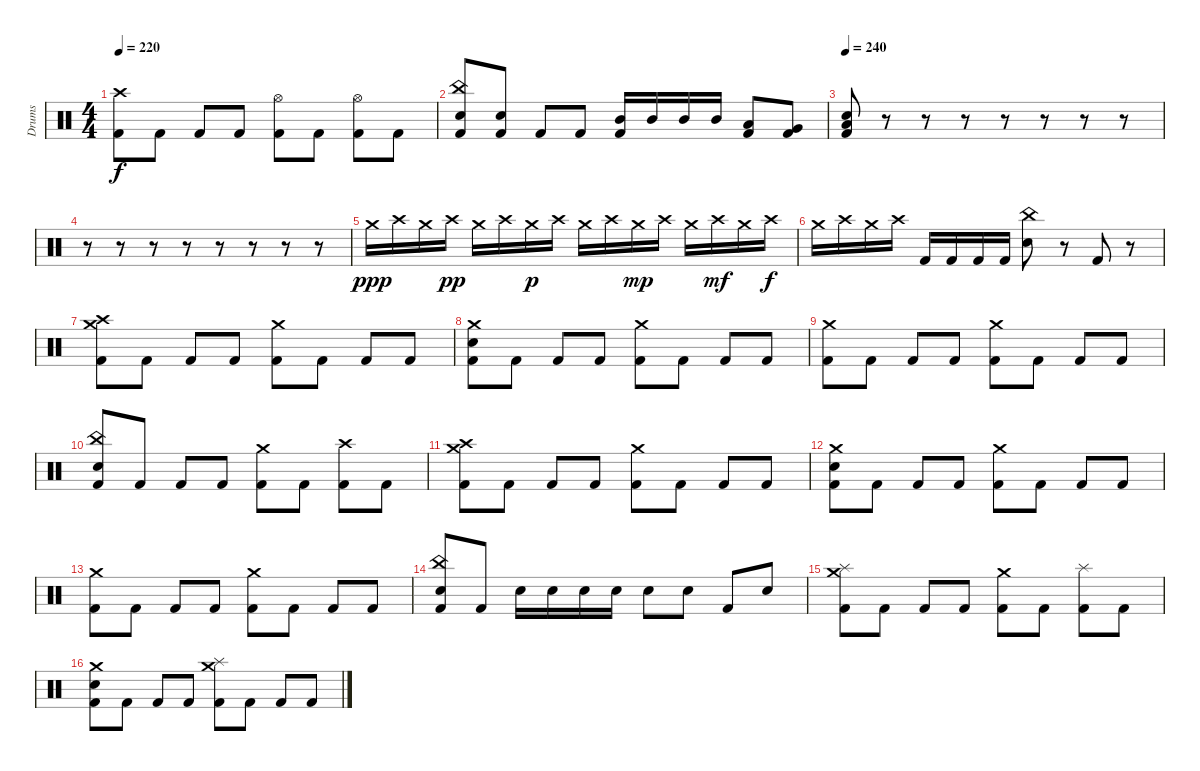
\track ("Drums" "Drums") {instrument percussion}
\staff {score}
\articulation defaults
\ts (4 4)
\tempo 220
\clef neutral
\ks c
("Crash high (hit)" "Kick (hit) 2").8{dy f} "Kick (hit) 2".8 "Kick (hit) 2".8 "Kick (hit) 2".8 ("Hi-Hat (open)" "Kick (hit) 2").8 "Kick (hit) 2".8 ("Hi-Hat (open)" "Kick (hit) 2").8 "Kick (hit) 2".8 |
("China (hit)" "Electric Snare (hit)" "Kick (hit) 2").8 ("Electric Snare (hit)" "Kick (hit) 2").8 "Kick (hit) 2".8 "Kick (hit) 2".8 ("Mid Tom (hit)" "Kick (hit) 2").16 "Mid Tom (hit)".16 "Mid Tom (hit)".16 "Mid Tom (hit)".16 ("Low Tom (hit)" "Kick (hit) 2").8 ("Very Low Tom (hit)" "Kick (hit) 2").8 |
\tempo 240
("Low Floor Tom (hit)" "Electric Snare (hit)" "Kick (hit) 2").8 r.8 r.8 r.8 r.8 r.8 r.8 r.8 |
r.8 r.8 r.8 r.8 r.8 r.8 r.8 r.8 |
"Crash medium (hit)".16{dy ppp} "Crash high (hit)".16 "Crash medium (hit)".16 "Crash high (hit)".16{dy pp} "Crash medium (hit)".16 "Crash high (hit)".16 "Crash medium (hit)".16{dy p} "Crash high (hit)".16 "Crash medium (hit)".16 "Crash high (hit)".16 "Crash medium (hit)".16{dy mp} "Crash high (hit)".16 "Crash medium (hit)".16 "Crash high (hit)".16{dy mf} "Crash medium (hit)".16 "Crash high (hit)".16{dy f} |
"Crash medium (hit)".16 "Crash high (hit)".16 "Crash medium (hit)".16 "Crash high (hit)".16 "Kick (hit) 2".16 "Kick (hit) 2".16 "Kick (hit) 2".16 "Kick (hit) 2".16 ("China (hit)" "Electric Snare (hit)").8 r.8 "Kick (hit) 2".8 r.8 |
("Crash medium (hit)" "Crash high (hit)" "Kick (hit) 2").8 "Kick (hit) 2".8 "Kick (hit) 2".8 "Kick (hit) 2".8 ("Crash medium (hit)" "Kick (hit) 2").8 "Kick (hit) 2".8 "Kick (hit) 2".8 "Kick (hit) 2".8 |
("Crash medium (hit)" "Electric Snare (hit)" "Kick (hit) 2").8 "Kick (hit) 2".8 "Kick (hit) 2".8 "Kick (hit) 2".8 ("Crash medium (hit)" "Kick (hit) 2").8 "Kick (hit) 2".8 "Kick (hit) 2".8 "Kick (hit) 2".8 |
("Crash medium (hit)" "Kick (hit) 2").8 "Kick (hit) 2".8 "Kick (hit) 2".8 "Kick (hit) 2".8 ("Crash medium (hit)" "Kick (hit) 2").8 "Kick (hit) 2".8 "Kick (hit) 2".8 "Kick (hit) 2".8 |
("China (hit)" "Electric Snare (hit)" "Kick (hit) 2").8 "Kick (hit) 2".8 "Kick (hit) 2".8 "Kick (hit) 2".8 ("Crash medium (hit)" "Kick (hit) 2").8 "Kick (hit) 2".8 ("Crash high (hit)" "Kick (hit) 2").8 "Kick (hit) 2".8 |
("Crash medium (hit)" "Crash high (hit)" "Kick (hit) 2").8 "Kick (hit) 2".8 "Kick (hit) 2".8 "Kick (hit) 2".8 ("Crash medium (hit)" "Kick (hit) 2").8 "Kick (hit) 2".8 "Kick (hit) 2".8 "Kick (hit) 2".8 |
("Crash medium (hit)" "Electric Snare (hit)" "Kick (hit) 2").8 "Kick (hit) 2".8 "Kick (hit) 2".8 "Kick (hit) 2".8 ("Crash medium (hit)" "Kick (hit) 2").8 "Kick (hit) 2".8 "Kick (hit) 2".8 "Kick (hit) 2".8 |
("Crash medium (hit)" "Kick (hit) 2").8 "Kick (hit) 2".8 "Kick (hit) 2".8 "Kick (hit) 2".8 ("Crash medium (hit)" "Kick (hit) 2").8 "Kick (hit) 2".8 "Kick (hit) 2".8 "Kick (hit) 2".8 |
("China (hit)" "Electric Snare (hit)" "Kick (hit) 2").8 "Kick (hit) 2".8 "Electric Snare (hit)".16 "Electric Snare (hit)".16 "Electric Snare (hit)".16 "Electric Snare (hit)".16 "Electric Snare (hit)".8 "Electric Snare (hit)".8 "Kick (hit) 2".8 "Electric Snare (hit)".8 |
("Splash (hit)" "Crash medium (hit)" "Kick (hit) 2").8 "Kick (hit) 2".8 "Kick (hit) 2".8 "Kick (hit) 2".8 ("Crash medium (hit)" "Kick (hit) 2").8 "Kick (hit) 2".8 ("Splash (hit)" "Kick (hit) 2").8 "Kick (hit) 2".8 |
("Crash medium (hit)" "Electric Snare (hit)" "Kick (hit) 2").8 "Kick (hit) 2".8 "Kick (hit) 2".8 "Kick (hit) 2".8 ("Splash (hit)" "Crash medium (hit)" "Kick (hit) 2").8 "Kick (hit) 2".8 "Kick (hit) 2".8 "Kick (hit) 2".8
